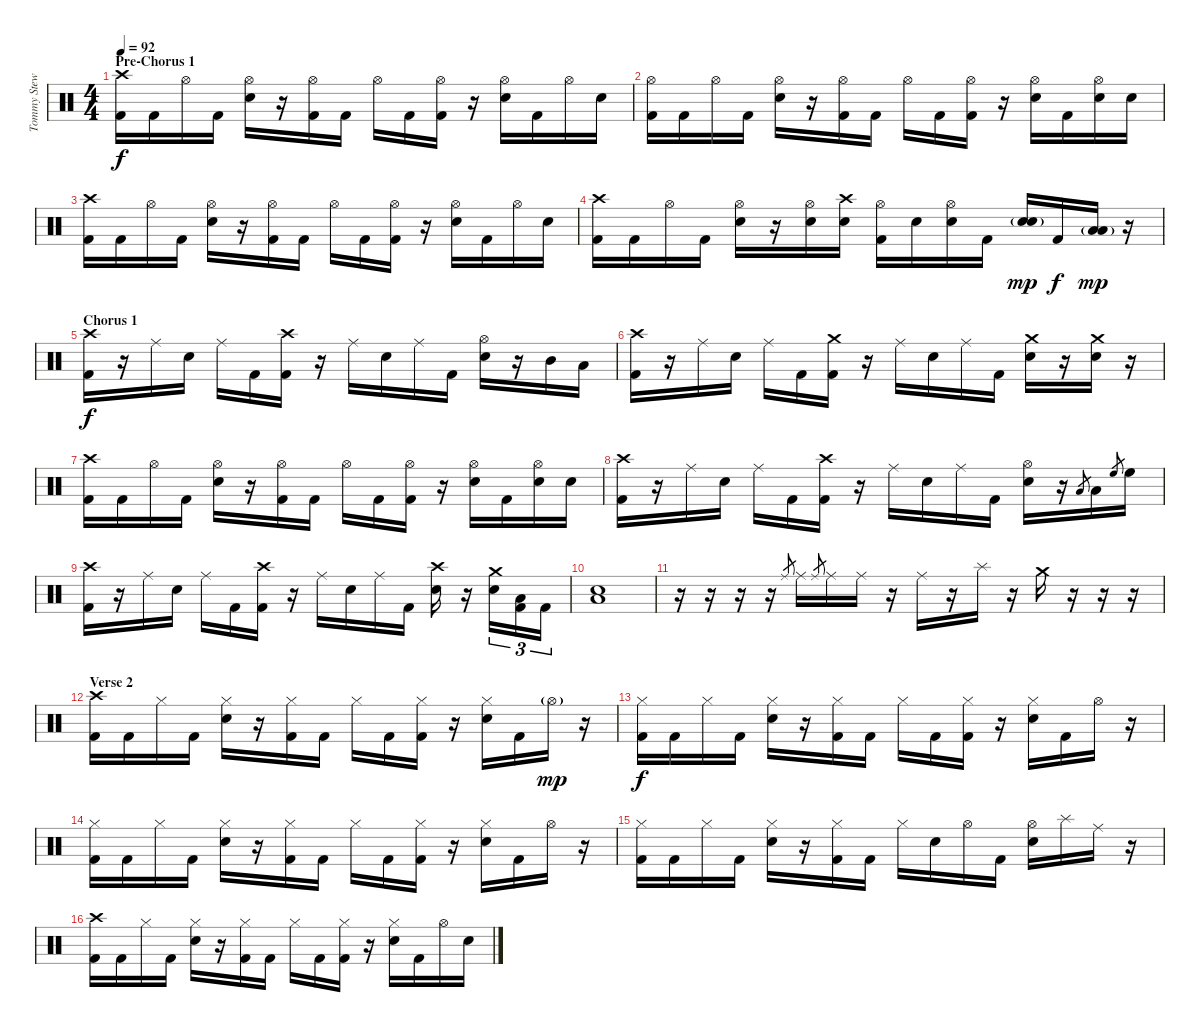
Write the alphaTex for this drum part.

\track ("Tommy Stewart - Drums" "Tommy Stew") {instrument percussion}
\staff {score}
\articulation defaults
\ts (4 4)
\section ("" "Pre-Chorus 1")
\tempo 92
\clef neutral
\ks c
("Crash high (hit)" "Kick (hit) 2").16{dy f} "Kick (hit) 2".16 "Hi-Hat (open)".16 "Kick (hit) 2".16 ("Hi-Hat (open)" "Snare (hit) 2").16 r.16 ("Hi-Hat (open)" "Kick (hit) 2").16 "Kick (hit) 2".16 "Hi-Hat (open)".16 "Kick (hit) 2".16 ("Hi-Hat (open)" "Kick (hit) 2").16 r.16 ("Hi-Hat (open)" "Snare (hit) 2").16 "Kick (hit) 2".16 "Hi-Hat (open)".16 "Snare (hit) 2".16 |
("Hi-Hat (open)" "Kick (hit) 2").16 "Kick (hit) 2".16 "Hi-Hat (open)".16 "Kick (hit) 2".16 ("Hi-Hat (open)" "Snare (hit) 2").16 r.16 ("Hi-Hat (open)" "Kick (hit) 2").16 "Kick (hit) 2".16 "Hi-Hat (open)".16 "Kick (hit) 2".16 ("Hi-Hat (open)" "Kick (hit) 2").16 r.16 ("Hi-Hat (open)" "Snare (hit) 2").16 "Kick (hit) 2".16 ("Hi-Hat (open)" "Snare (hit) 2").16 "Snare (hit) 2".16 |
("Crash high (hit)" "Kick (hit) 2").16 "Kick (hit) 2".16 "Hi-Hat (open)".16 "Kick (hit) 2".16 ("Hi-Hat (open)" "Snare (hit) 2").16 r.16 ("Hi-Hat (open)" "Kick (hit) 2").16 "Kick (hit) 2".16 "Hi-Hat (open)".16 "Kick (hit) 2".16 ("Hi-Hat (open)" "Kick (hit) 2").16 r.16 ("Hi-Hat (open)" "Snare (hit) 2").16 "Kick (hit) 2".16 "Hi-Hat (open)".16 "Snare (hit) 2".16 |
("Crash high (hit)" "Kick (hit) 2").16 "Kick (hit) 2".16 "Hi-Hat (open)".16 "Kick (hit) 2".16 ("Hi-Hat (open)" "Snare (hit) 2").16 r.16 ("Hi-Hat (open)" "Snare (hit) 2").16 ("Crash high (hit)" "Snare (hit) 2").16 ("Hi-Hat (open)" "Kick (hit) 2").16 "Snare (hit) 2".16 ("Hi-Hat (open)" "Snare (hit) 2").16 "Kick (hit) 2".16 ("Snare (hit) 2"{g} "Snare (hit) 2").16{dy mp} "Kick (hit) 2".16{dy f} ("Low Floor Tom (hit)"{g} "Low Floor Tom (hit)").16{dy mp} r.16 |
\section ("" "Chorus 1")
("Crash high (hit)" "Kick (hit) 2").16{dy f} r.16 "Ride (middle)".16 "Snare (hit) 2".16 "Ride (middle)".16 "Kick (hit) 2".16 ("Crash high (hit)" "Kick (hit) 2").16 r.16 "Ride (middle)".16 "Snare (hit) 2".16 "Ride (middle)".16 "Kick (hit) 2".16 ("Hi-Hat (open)" "Snare (hit) 2").16 r.16 "Mid Tom (hit)".16 "Low Tom (hit)".16 |
("Crash high (hit)" "Kick (hit) 2").16 r.16 "Ride (middle)".16 "Snare (hit) 2".16 "Ride (middle)".16 "Kick (hit) 2".16 ("Crash medium (hit)" "Kick (hit) 2").16 r.16 "Ride (middle)".16 "Snare (hit) 2".16 "Ride (middle)".16 "Kick (hit) 2".16 ("Crash medium (hit)" "Snare (hit) 2").16 r.16 ("Crash medium (hit)" "Snare (hit) 2").16 r.16 |
("Crash high (hit)" "Kick (hit) 2").16 "Kick (hit) 2".16 "Hi-Hat (open)".16 "Kick (hit) 2".16 ("Hi-Hat (open)" "Snare (hit) 2").16 r.16 ("Hi-Hat (open)" "Kick (hit) 2").16 "Kick (hit) 2".16 "Hi-Hat (open)".16 "Kick (hit) 2".16 ("Hi-Hat (open)" "Kick (hit) 2").16 r.16 ("Hi-Hat (open)" "Snare (hit) 2").16 "Kick (hit) 2".16 ("Hi-Hat (open)" "Snare (hit) 2").16 "Snare (hit) 2".16 |
("Crash high (hit)" "Kick (hit) 2").16 r.16 "Ride (middle)".16 "Snare (hit) 2".16 "Ride (middle)".16 "Kick (hit) 2".16 ("Crash high (hit)" "Kick (hit) 2").16 r.16 "Ride (middle)".16 "Snare (hit) 2".16 "Ride (middle)".16 "Kick (hit) 2".16 ("Hi-Hat (open)" "Snare (hit) 2").16 r.16 "Low Tom (hit)".8{gr} "Low Tom (hit)".16 "High Floor Tom (hit)".8{gr} "High Floor Tom (hit)".16 |
("Crash high (hit)" "Kick (hit) 2").16 r.16 "Ride (middle)".16 "Snare (hit) 2".16 "Ride (middle)".16 "Kick (hit) 2".16 ("Crash high (hit)" "Kick (hit) 2").16 r.16 "Ride (middle)".16 "Snare (hit) 2".16 "Ride (middle)".16 "Kick (hit) 2".16 ("Crash high (hit)" "Snare (hit) 2").16 r.16 ("Crash medium (hit)" "Snare (hit) 2").16{tu (3 2)} ("Low Floor Tom (hit)" "Kick (hit) 2").16{tu (3 2)} "Kick (hit) 2".16{tu (3 2)} |
("Snare (hit) 2" "Low Floor Tom (hit)").1 |
r.16 r.16 r.16 r.16 "Ride (middle)".8{gr} "Ride (middle)".16 "Ride (middle)".8{gr} "Ride (middle)".16 "Ride (middle)".16 r.16 "Ride (middle)".16 r.16 "Splash (hit)".16 r.16 "Crash medium (hit)".16 r.16 r.16 r.16 |
\section ("" "Verse 2")
("Crash high (hit)" "Kick (hit) 2").16 "Kick (hit) 2".16 "Hi-Hat (closed)".16 "Kick (hit) 2".16 ("Hi-Hat (closed)" "Snare (hit) 2").16 r.16 ("Hi-Hat (closed)" "Kick (hit) 2").16 "Kick (hit) 2".16 "Hi-Hat (closed)".16 "Kick (hit) 2".16 ("Hi-Hat (closed)" "Kick (hit) 2").16 r.16 ("Hi-Hat (closed)" "Snare (hit) 2").16 "Kick (hit) 2".16 "Hi-Hat (open)"{g}.16{dy mp} r.16 |
("Hi-Hat (closed)" "Kick (hit) 2").16{dy f} "Kick (hit) 2".16 "Hi-Hat (closed)".16 "Kick (hit) 2".16 ("Hi-Hat (closed)" "Snare (hit) 2").16 r.16 ("Hi-Hat (closed)" "Kick (hit) 2").16 "Kick (hit) 2".16 "Hi-Hat (closed)".16 "Kick (hit) 2".16 ("Hi-Hat (closed)" "Kick (hit) 2").16 r.16 ("Hi-Hat (closed)" "Snare (hit) 2").16 "Kick (hit) 2".16 "Hi-Hat (open)".16 r.16 |
("Hi-Hat (closed)" "Kick (hit) 2").16 "Kick (hit) 2".16 "Hi-Hat (closed)".16 "Kick (hit) 2".16 ("Hi-Hat (closed)" "Snare (hit) 2").16 r.16 ("Hi-Hat (closed)" "Kick (hit) 2").16 "Kick (hit) 2".16 "Hi-Hat (closed)".16 "Kick (hit) 2".16 ("Hi-Hat (closed)" "Kick (hit) 2").16 r.16 ("Hi-Hat (closed)" "Snare (hit) 2").16 "Kick (hit) 2".16 "Hi-Hat (open)".16 r.16 |
("Hi-Hat (closed)" "Kick (hit) 2").16 "Kick (hit) 2".16 "Hi-Hat (closed)".16 "Kick (hit) 2".16 ("Hi-Hat (closed)" "Snare (hit) 2").16 r.16 ("Hi-Hat (closed)" "Kick (hit) 2").16 "Kick (hit) 2".16 "Hi-Hat (closed)".16 "Snare (hit) 2".16 "Hi-Hat (open)".16 "Kick (hit) 2".16 ("Hi-Hat (open)" "Snare (hit) 2").16 "Splash (hit)".16 "Ride (middle)".16 r.16 |
("Crash high (hit)" "Kick (hit) 2").16 "Kick (hit) 2".16 "Hi-Hat (closed)".16 "Kick (hit) 2".16 ("Hi-Hat (closed)" "Snare (hit) 2").16 r.16 ("Hi-Hat (closed)" "Kick (hit) 2").16 "Kick (hit) 2".16 "Hi-Hat (closed)".16 "Kick (hit) 2".16 ("Hi-Hat (closed)" "Kick (hit) 2").16 r.16 ("Hi-Hat (closed)" "Snare (hit) 2").16 "Kick (hit) 2".16 "Hi-Hat (open)".16 "Snare (hit) 2".16
